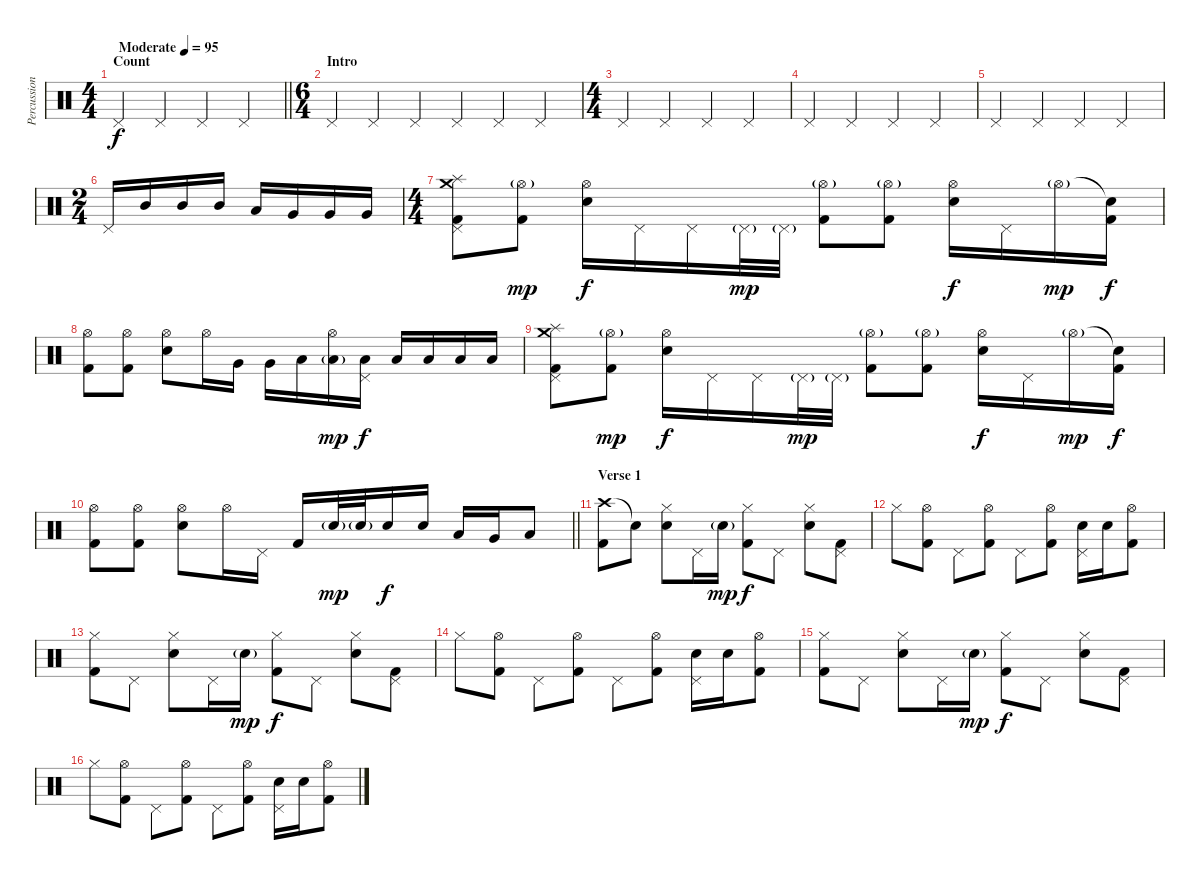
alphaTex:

\track ("Percussion" "Percussion") {instrument percussion}
\staff {score}
\articulation defaults
\ts (4 4)
\section ("" "Count")
\tempo (95 "Moderate")
\clef neutral
\barLineRight lightlight
\ks c "Pedal Hi-Hat (hit)".4{dy f} "Pedal Hi-Hat (hit)".4 "Pedal Hi-Hat (hit)".4 "Pedal Hi-Hat (hit)".4
|
\ts (6 4)
\section ("" "Intro")
"Pedal Hi-Hat (hit)".4 "Pedal Hi-Hat (hit)".4 "Pedal Hi-Hat (hit)".4 "Pedal Hi-Hat (hit)".4 "Pedal Hi-Hat (hit)".4 "Pedal Hi-Hat (hit)".4 |
\ts (4 4)
"Pedal Hi-Hat (hit)".4 "Pedal Hi-Hat (hit)".4 "Pedal Hi-Hat (hit)".4 "Pedal Hi-Hat (hit)".4 |
"Pedal Hi-Hat (hit)".4 "Pedal Hi-Hat (hit)".4 "Pedal Hi-Hat (hit)".4 "Pedal Hi-Hat (hit)".4 |
"Pedal Hi-Hat (hit)".4 "Pedal Hi-Hat (hit)".4 "Pedal Hi-Hat (hit)".4 "Pedal Hi-Hat (hit)".4 |
\ts (2 4)
"Pedal Hi-Hat (hit)".16 "Mid Tom (hit)".16 "Mid Tom (hit)".16 "Mid Tom (hit)".16 "Low Tom (hit)".16 "Very Low Tom (hit)".16 "Very Low Tom (hit)".16 "Very Low Tom (hit)".16 |
\ts (4 4)
("Crash medium (hit)" "Splash (hit)" "Pedal Hi-Hat (hit)" "Kick (hit) 2").8 ("Hi-Hat (open)"{g} "Kick (hit) 2").8{dy mp} ("Snare (hit) 2" "Hi-Hat (open)").16{dy f} "Pedal Hi-Hat (hit)".16 "Pedal Hi-Hat (hit)".16 "Pedal Hi-Hat (hit)"{g}.32{dy mp} "Pedal Hi-Hat (hit)"{g}.32 ("Hi-Hat (open)"{g} "Kick (hit) 2").8 ("Hi-Hat (open)"{g} "Kick (hit) 2").8 ("Snare (hit) 2" "Hi-Hat (open)").16{dy f} "Pedal Hi-Hat (hit)".16 "Hi-Hat (open)"{g}.16{dy mp} ("Snare (hit)"{t} "Kick (hit) 2").16{dy f} |
("Hi-Hat (open)" "Kick (hit) 2").8 ("Hi-Hat (open)" "Kick (hit) 2").8 ("Snare (hit) 2" "Hi-Hat (open)").8 "Hi-Hat (open)".16 "Very Low Tom (hit)".16 "Very Low Tom (hit)".16 "Low Tom (hit)".16 ("Hi-Hat (open)" "Low Floor Tom (hit)"{g}).16{dy mp} ("Pedal Hi-Hat (hit)" "Low Tom (hit)").16{dy f} "Low Tom (hit)".16 "Low Tom (hit)".16 "Low Floor Tom (hit)".16 "Low Floor Tom (hit)".16 |
("Crash medium (hit)" "Splash (hit)" "Pedal Hi-Hat (hit)" "Kick (hit) 2").8 ("Hi-Hat (open)"{g} "Kick (hit) 2").8{dy mp} ("Snare (hit) 2" "Hi-Hat (open)").16{dy f} "Pedal Hi-Hat (hit)".16 "Pedal Hi-Hat (hit)".16 "Pedal Hi-Hat (hit)"{g}.32{dy mp} "Pedal Hi-Hat (hit)"{g}.32 ("Hi-Hat (open)"{g} "Kick (hit) 2").8 ("Hi-Hat (open)"{g} "Kick (hit) 2").8 ("Snare (hit) 2" "Hi-Hat (open)").16{dy f} "Pedal Hi-Hat (hit)".16 "Hi-Hat (open)"{g}.16{dy mp} ("Snare (hit)"{t} "Kick (hit) 2").16{dy f} |
\barLineRight lightlight
("Hi-Hat (open)" "Kick (hit) 2").8 ("Hi-Hat (open)" "Kick (hit) 2").8 ("Snare (hit) 2" "Hi-Hat (open)").8 "Hi-Hat (open)".16 "Pedal Hi-Hat (hit)".16 "Kick (hit) 2".16 "Snare (hit) 2"{g}.32{dy mp} "Snare (hit) 2"{g}.32 "Snare (hit) 2".16{dy f} "Snare (hit) 2".16 "Low Tom (hit)".16 "Very Low Tom (hit)".16 "Low Floor Tom (hit)".8 |
\section ("" "Verse 1")
("Crash high (hit)" "Kick (hit) 2").8 "Snare (hit)"{t}.8 ("Snare (hit) 2" "Hi-Hat (closed)").8 "Pedal Hi-Hat (hit)".16 "Snare (hit) 2"{g}.16{dy mp} ("Hi-Hat (closed)" "Kick (hit) 2").8{dy f} "Pedal Hi-Hat (hit)".8 ("Snare (hit) 2" "Hi-Hat (closed)").8 ("Pedal Hi-Hat (hit)" "Kick (hit) 2").8 |
"Hi-Hat (closed)".8 ("Hi-Hat (open)" "Kick (hit) 2").8 "Pedal Hi-Hat (hit)".8 ("Hi-Hat (open)" "Kick (hit) 2").8 "Pedal Hi-Hat (hit)".8 ("Hi-Hat (open)" "Kick (hit) 2").8 ("Snare (hit) 2" "Pedal Hi-Hat (hit)").16 "Snare (hit) 2".16 ("Hi-Hat (open)" "Kick (hit) 2").8 |
("Hi-Hat (closed)" "Kick (hit) 2").8 "Pedal Hi-Hat (hit)".8 ("Snare (hit) 2" "Hi-Hat (closed)").8 "Pedal Hi-Hat (hit)".16 "Snare (hit) 2"{g}.16{dy mp} ("Hi-Hat (closed)" "Kick (hit) 2").8{dy f} "Pedal Hi-Hat (hit)".8 ("Snare (hit) 2" "Hi-Hat (closed)").8 ("Pedal Hi-Hat (hit)" "Kick (hit) 2").8 |
"Hi-Hat (closed)".8 ("Hi-Hat (open)" "Kick (hit) 2").8 "Pedal Hi-Hat (hit)".8 ("Hi-Hat (open)" "Kick (hit) 2").8 "Pedal Hi-Hat (hit)".8 ("Hi-Hat (open)" "Kick (hit) 2").8 ("Snare (hit) 2" "Pedal Hi-Hat (hit)").16 "Snare (hit) 2".16 ("Hi-Hat (open)" "Kick (hit) 2").8 |
("Hi-Hat (closed)" "Kick (hit) 2").8 "Pedal Hi-Hat (hit)".8 ("Snare (hit) 2" "Hi-Hat (closed)").8 "Pedal Hi-Hat (hit)".16 "Snare (hit) 2"{g}.16{dy mp} ("Hi-Hat (closed)" "Kick (hit) 2").8{dy f} "Pedal Hi-Hat (hit)".8 ("Snare (hit) 2" "Hi-Hat (closed)").8 ("Pedal Hi-Hat (hit)" "Kick (hit) 2").8 |
"Hi-Hat (closed)".8 ("Hi-Hat (open)" "Kick (hit) 2").8 "Pedal Hi-Hat (hit)".8 ("Hi-Hat (open)" "Kick (hit) 2").8 "Pedal Hi-Hat (hit)".8 ("Hi-Hat (open)" "Kick (hit) 2").8 ("Snare (hit) 2" "Pedal Hi-Hat (hit)").16 "Snare (hit) 2".16 ("Hi-Hat (open)" "Kick (hit) 2").8
